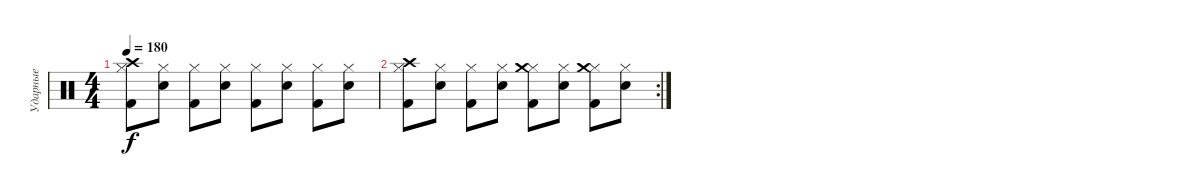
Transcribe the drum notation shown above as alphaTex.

\track ("Ударные" "Ударные") {instrument percussion}
\staff {score}
\articulation defaults
\ts (4 4)
\tempo 180
\clef neutral
\ks c
("Hi-Hat (closed)" "Kick (hit) 2" "Crash high (hit)").8{dy f} ("Hi-Hat (closed)" "Electric Snare (hit)").8 ("Hi-Hat (closed)" "Kick (hit) 2").8 ("Hi-Hat (closed)" "Electric Snare (hit)").8 ("Hi-Hat (closed)" "Kick (hit) 2").8 ("Hi-Hat (closed)" "Electric Snare (hit)").8 ("Hi-Hat (closed)" "Kick (hit) 2").8 ("Hi-Hat (closed)" "Electric Snare (hit)").8 |
\rc 2
("Hi-Hat (closed)" "Kick (hit) 2" "Crash high (hit)").8 ("Hi-Hat (closed)" "Electric Snare (hit)").8 ("Hi-Hat (closed)" "Kick (hit) 2").8 ("Hi-Hat (closed)" "Electric Snare (hit)").8 ("Hi-Hat (closed)" "Kick (hit) 2" "Crash medium (hit)").8 ("Hi-Hat (closed)" "Electric Snare (hit)").8 ("Hi-Hat (closed)" "Kick (hit) 2" "Crash medium (hit)").8 ("Hi-Hat (closed)" "Electric Snare (hit)").8
